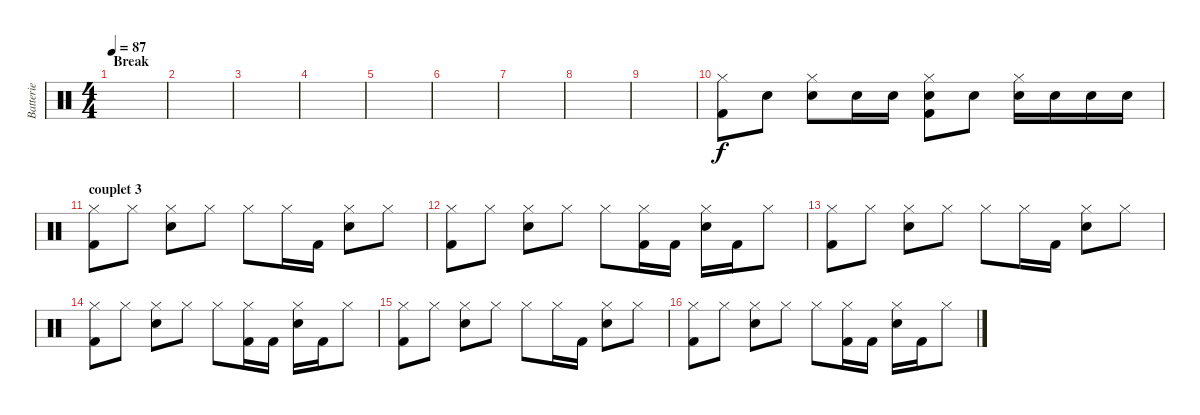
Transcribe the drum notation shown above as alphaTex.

\track ("Batterie" "Batterie") {instrument percussion}
\staff {score}
\articulation defaults
\ts (4 4)
\section ("" "Break")
\tempo 87
\clef neutral
\ks c
|
|
|
|
|
|
|
|
|
("Hi-Hat (closed)" "Kick (hit) 2").8 "Snare (hit) 2".8 ("Hi-Hat (closed)" "Snare (hit) 2").8 "Snare (hit) 2".16 "Snare (hit) 2".16 ("Hi-Hat (closed)" "Snare (hit) 2" "Kick (hit) 2").8 "Snare (hit) 2".8 ("Hi-Hat (closed)" "Snare (hit) 2").16 "Snare (hit) 2".16 "Snare (hit) 2".16 "Snare (hit) 2".16 |
\section ("" "couplet 3")
("Hi-Hat (closed)" "Kick (hit) 2").8 "Hi-Hat (closed)".8 ("Hi-Hat (closed)" "Snare (hit) 2").8 "Hi-Hat (closed)".8 "Hi-Hat (closed)".8 "Hi-Hat (closed)".16 "Kick (hit) 2".16 ("Hi-Hat (closed)" "Snare (hit) 2").8 "Hi-Hat (closed)".8 |
("Hi-Hat (closed)" "Kick (hit) 2").8 "Hi-Hat (closed)".8 ("Hi-Hat (closed)" "Snare (hit) 2").8 "Hi-Hat (closed)".8 "Hi-Hat (closed)".8 ("Hi-Hat (closed)" "Kick (hit) 2").16 "Kick (hit) 2".16 ("Hi-Hat (closed)" "Snare (hit) 2").16 "Kick (hit) 2".16 "Hi-Hat (closed)".8 |
("Hi-Hat (closed)" "Kick (hit) 2").8 "Hi-Hat (closed)".8 ("Hi-Hat (closed)" "Snare (hit) 2").8 "Hi-Hat (closed)".8 "Hi-Hat (closed)".8 "Hi-Hat (closed)".16 "Kick (hit) 2".16 ("Hi-Hat (closed)" "Snare (hit) 2").8 "Hi-Hat (closed)".8 |
("Hi-Hat (closed)" "Kick (hit) 2").8 "Hi-Hat (closed)".8 ("Hi-Hat (closed)" "Snare (hit) 2").8 "Hi-Hat (closed)".8 "Hi-Hat (closed)".8 ("Hi-Hat (closed)" "Kick (hit) 2").16 "Kick (hit) 2".16 ("Hi-Hat (closed)" "Snare (hit) 2").16 "Kick (hit) 2".16 "Hi-Hat (closed)".8 |
("Hi-Hat (closed)" "Kick (hit) 2").8 "Hi-Hat (closed)".8 ("Hi-Hat (closed)" "Snare (hit) 2").8 "Hi-Hat (closed)".8 "Hi-Hat (closed)".8 "Hi-Hat (closed)".16 "Kick (hit) 2".16 ("Hi-Hat (closed)" "Snare (hit) 2").8 "Hi-Hat (closed)".8 |
("Hi-Hat (closed)" "Kick (hit) 2").8 "Hi-Hat (closed)".8 ("Hi-Hat (closed)" "Snare (hit) 2").8 "Hi-Hat (closed)".8 "Hi-Hat (closed)".8 ("Hi-Hat (closed)" "Kick (hit) 2").16 "Kick (hit) 2".16 ("Hi-Hat (closed)" "Snare (hit) 2").16 "Kick (hit) 2".16 "Hi-Hat (closed)".8
